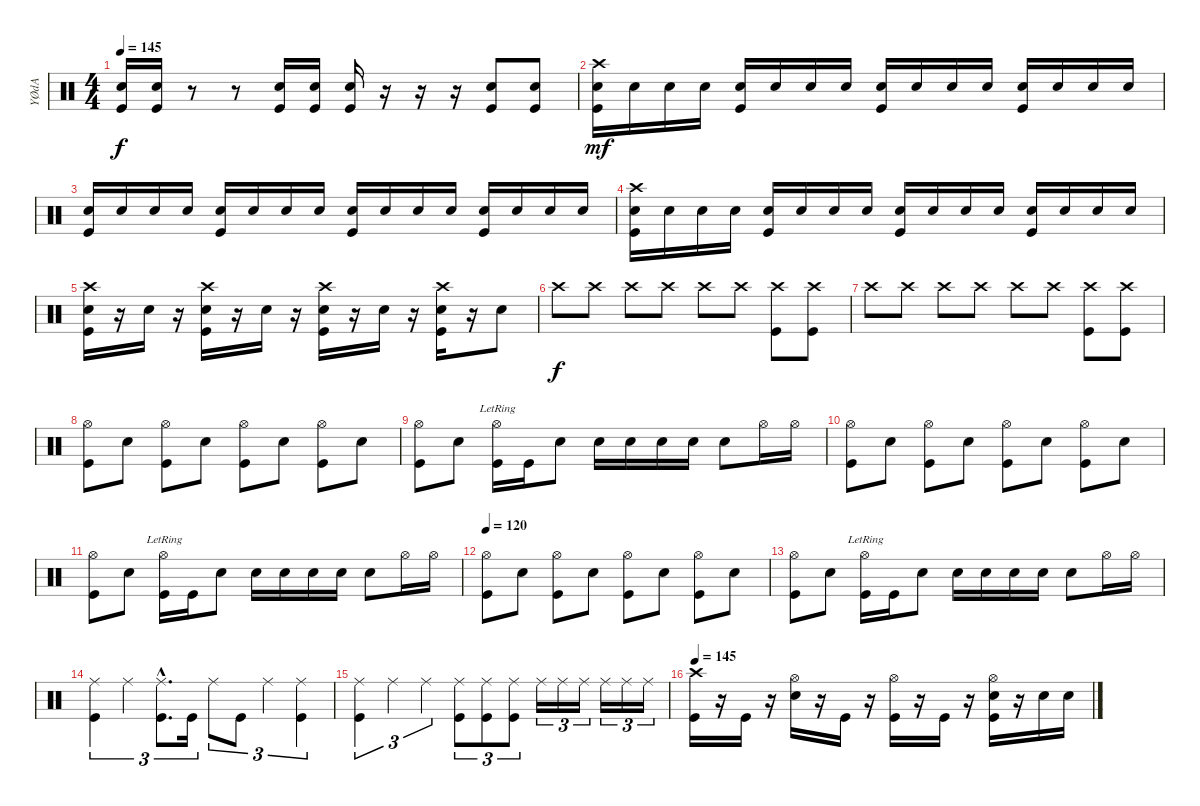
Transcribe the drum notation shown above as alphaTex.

\track ("YØdA" "YØdA") {instrument percussion}
\staff {score}
\articulation defaults
\ts (4 4)
\tempo 145
\clef neutral
\ks c
("Electric Snare (hit)" "Kick (hit)").16{dy f} ("Electric Snare (hit)" "Kick (hit)").16 r.8 r.8 ("Electric Snare (hit)" "Kick (hit)").16 ("Electric Snare (hit)" "Kick (hit)").16 ("Electric Snare (hit)" "Kick (hit)").16 r.16 r.16 r.16 ("Electric Snare (hit)" "Kick (hit)").8 ("Electric Snare (hit)" "Kick (hit)").8 |
("Crash high (hit)" "Electric Snare (hit)" "Kick (hit)").16{dy mf} "Electric Snare (hit)".16 "Electric Snare (hit)".16 "Electric Snare (hit)".16 ("Electric Snare (hit)" "Kick (hit)").16 "Electric Snare (hit)".16 "Electric Snare (hit)".16 "Electric Snare (hit)".16 ("Electric Snare (hit)" "Kick (hit)").16 "Electric Snare (hit)".16 "Electric Snare (hit)".16 "Electric Snare (hit)".16 ("Electric Snare (hit)" "Kick (hit)").16 "Electric Snare (hit)".16 "Electric Snare (hit)".16 "Electric Snare (hit)".16 |
("Electric Snare (hit)" "Kick (hit)").16 "Electric Snare (hit)".16 "Electric Snare (hit)".16 "Electric Snare (hit)".16 ("Electric Snare (hit)" "Kick (hit)").16 "Electric Snare (hit)".16 "Electric Snare (hit)".16 "Electric Snare (hit)".16 ("Electric Snare (hit)" "Kick (hit)").16 "Electric Snare (hit)".16 "Electric Snare (hit)".16 "Electric Snare (hit)".16 ("Electric Snare (hit)" "Kick (hit)").16 "Electric Snare (hit)".16 "Electric Snare (hit)".16 "Electric Snare (hit)".16 |
("Crash high (hit)" "Electric Snare (hit)" "Kick (hit)").16 "Electric Snare (hit)".16 "Electric Snare (hit)".16 "Electric Snare (hit)".16 ("Electric Snare (hit)" "Kick (hit)").16 "Electric Snare (hit)".16 "Electric Snare (hit)".16 "Electric Snare (hit)".16 ("Electric Snare (hit)" "Kick (hit)").16 "Electric Snare (hit)".16 "Electric Snare (hit)".16 "Electric Snare (hit)".16 ("Electric Snare (hit)" "Kick (hit)").16 "Electric Snare (hit)".16 "Electric Snare (hit)".16 "Electric Snare (hit)".16 |
("Crash high (hit)" "Electric Snare (hit)" "Kick (hit)").16 r.16 "Electric Snare (hit)".16 r.16 ("Crash high (hit)" "Electric Snare (hit)" "Kick (hit)").16 r.16 "Electric Snare (hit)".16 r.16 ("Crash high (hit)" "Electric Snare (hit)" "Kick (hit)").16 r.16 "Electric Snare (hit)".16 r.16 ("Crash high (hit)" "Electric Snare (hit)" "Kick (hit)").16 r.16 "Electric Snare (hit)".8 |
"Crash high (hit)".8{dy f} "Crash high (hit)".8 "Crash high (hit)".8 "Crash high (hit)".8 "Crash high (hit)".8 "Crash high (hit)".8 ("Crash high (hit)" "Kick (hit)").8 ("Crash high (hit)" "Kick (hit)").8 |
"Crash high (hit)".8 "Crash high (hit)".8 "Crash high (hit)".8 "Crash high (hit)".8 "Crash high (hit)".8 "Crash high (hit)".8 ("Crash high (hit)" "Kick (hit)").8 ("Crash high (hit)" "Kick (hit)").8 |
("Hi-Hat (open)" "Kick (hit)").8 "Electric Snare (hit)".8 ("Hi-Hat (open)" "Kick (hit)").8 "Electric Snare (hit)".8 ("Hi-Hat (open)" "Kick (hit)").8 "Electric Snare (hit)".8 ("Hi-Hat (open)" "Kick (hit)").8 "Electric Snare (hit)".8 |
("Hi-Hat (open)" "Kick (hit)").8 "Electric Snare (hit)".8 ("Hi-Hat (open)"{lr} "Kick (hit)").16 "Kick (hit)".16 "Electric Snare (hit)".8 "Electric Snare (hit)".16 "Electric Snare (hit)".16 "Electric Snare (hit)".16 "Electric Snare (hit)".16 "Electric Snare (hit)".8 "Hi-Hat (open)".16 "Hi-Hat (open)".16 |
("Hi-Hat (open)" "Kick (hit)").8 "Electric Snare (hit)".8 ("Hi-Hat (open)" "Kick (hit)").8 "Electric Snare (hit)".8 ("Hi-Hat (open)" "Kick (hit)").8 "Electric Snare (hit)".8 ("Hi-Hat (open)" "Kick (hit)").8 "Electric Snare (hit)".8 |
("Hi-Hat (open)" "Kick (hit)").8 "Electric Snare (hit)".8 ("Hi-Hat (open)"{lr} "Kick (hit)").16 "Kick (hit)".16 "Electric Snare (hit)".8 "Electric Snare (hit)".16 "Electric Snare (hit)".16 "Electric Snare (hit)".16 "Electric Snare (hit)".16 "Electric Snare (hit)".8 "Hi-Hat (open)".16 "Hi-Hat (open)".16 |
\tempo 120
("Hi-Hat (open)" "Kick (hit)").8 "Electric Snare (hit)".8 ("Hi-Hat (open)" "Kick (hit)").8 "Electric Snare (hit)".8 ("Hi-Hat (open)" "Kick (hit)").8 "Electric Snare (hit)".8 ("Hi-Hat (open)" "Kick (hit)").8 "Electric Snare (hit)".8 |
("Hi-Hat (open)" "Kick (hit)").8 "Electric Snare (hit)".8 ("Hi-Hat (open)"{lr} "Kick (hit)").16 "Kick (hit)".16 "Electric Snare (hit)".8 "Electric Snare (hit)".16 "Electric Snare (hit)".16 "Electric Snare (hit)".16 "Electric Snare (hit)".16 "Electric Snare (hit)".8 "Hi-Hat (open)".16 "Hi-Hat (open)".16 |
("Ride (middle)" "Kick (hit)").4{tu (3 2)} "Ride (middle)".4{tu (3 2)} ("Ride (middle)"{hac} "Kick (hit)"{hac}).8{d tu (3 2)} "Kick (hit)".16{tu (3 2)} "Ride (middle)".8{tu (3 2)} "Kick (hit)".8{tu (3 2)} "Ride (middle)".4{tu (3 2)} ("Ride (middle)" "Kick (hit)").4{tu (3 2)} |
("Ride (middle)" "Kick (hit)").4{tu (3 2)} "Ride (middle)".4{tu (3 2)} "Ride (middle)".4{tu (3 2)} ("Ride (middle)" "Kick (hit)").8{tu (3 2)} ("Ride (middle)" "Kick (hit)").8{tu (3 2)} ("Ride (middle)" "Kick (hit)").8{tu (3 2)} "Ride (middle)".16{tu (3 2)} "Ride (middle)".16{tu (3 2)} "Ride (middle)".16{tu (3 2)} "Ride (middle)".16{tu (3 2)} "Ride (middle)".16{tu (3 2)} "Ride (middle)".16{tu (3 2)} |
\tempo 145
("Crash high (hit)" "Kick (hit)").16 r.16 "Kick (hit)".16 r.16 ("Hi-Hat (open)" "Electric Snare (hit)").16 r.16 "Kick (hit)".16 r.16 ("Hi-Hat (open)" "Kick (hit)").16 r.16 "Kick (hit)".16 r.16 ("Hi-Hat (open)" "Electric Snare (hit)" "Kick (hit)").16 r.16 "Electric Snare (hit)".16 "Electric Snare (hit)".16
